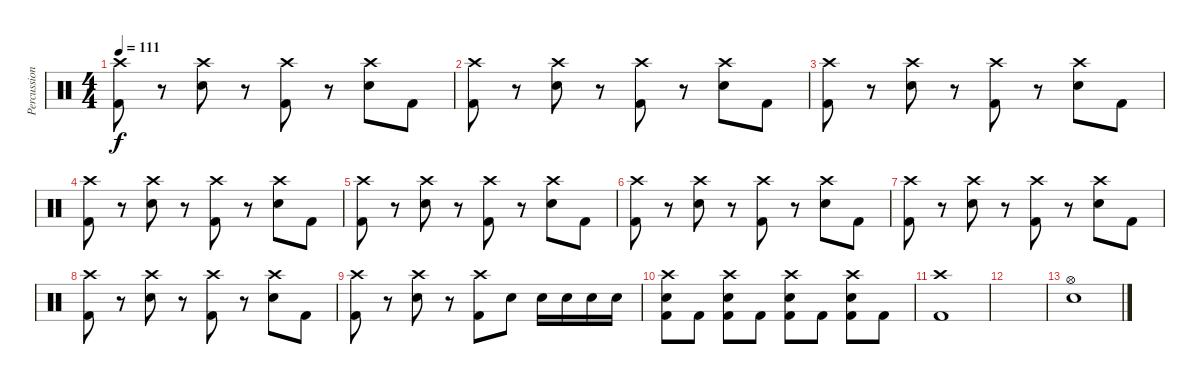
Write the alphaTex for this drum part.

\track ("Percussion" "Percussion") {instrument percussion}
\staff {score}
\articulation defaults
\ts (4 4)
\tempo 111
\clef neutral
\ks c
("Crash high (hit)" "Kick (hit) 2").8{dy f} r.8 ("Crash high (hit)" "Snare (hit) 2").8 r.8 ("Crash high (hit)" "Kick (hit) 2").8 r.8 ("Crash high (hit)" "Snare (hit) 2").8 "Kick (hit) 2".8 |
("Crash high (hit)" "Kick (hit) 2").8 r.8 ("Crash high (hit)" "Snare (hit) 2").8 r.8 ("Crash high (hit)" "Kick (hit) 2").8 r.8 ("Crash high (hit)" "Snare (hit) 2").8 "Kick (hit) 2".8 |
("Crash high (hit)" "Kick (hit) 2").8 r.8 ("Crash high (hit)" "Snare (hit) 2").8 r.8 ("Crash high (hit)" "Kick (hit) 2").8 r.8 ("Crash high (hit)" "Snare (hit) 2").8 "Kick (hit) 2".8 |
("Crash high (hit)" "Kick (hit) 2").8 r.8 ("Crash high (hit)" "Snare (hit) 2").8 r.8 ("Crash high (hit)" "Kick (hit) 2").8 r.8 ("Crash high (hit)" "Snare (hit) 2").8 "Kick (hit) 2".8 |
("Crash high (hit)" "Kick (hit) 2").8 r.8 ("Crash high (hit)" "Snare (hit) 2").8 r.8 ("Crash high (hit)" "Kick (hit) 2").8 r.8 ("Crash high (hit)" "Snare (hit) 2").8 "Kick (hit) 2".8 |
("Crash high (hit)" "Kick (hit) 2").8 r.8 ("Crash high (hit)" "Snare (hit) 2").8 r.8 ("Crash high (hit)" "Kick (hit) 2").8 r.8 ("Crash high (hit)" "Snare (hit) 2").8 "Kick (hit) 2".8 |
("Crash high (hit)" "Kick (hit) 2").8 r.8 ("Crash high (hit)" "Snare (hit) 2").8 r.8 ("Crash high (hit)" "Kick (hit) 2").8 r.8 ("Crash high (hit)" "Snare (hit) 2").8 "Kick (hit) 2".8 |
("Crash high (hit)" "Kick (hit) 2").8 r.8 ("Crash high (hit)" "Snare (hit) 2").8 r.8 ("Crash high (hit)" "Kick (hit) 2").8 r.8 ("Crash high (hit)" "Snare (hit) 2").8 "Kick (hit) 2".8 |
("Crash high (hit)" "Kick (hit) 2").8 r.8 ("Crash high (hit)" "Snare (hit) 2").8 r.8 ("Crash high (hit)" "Kick (hit) 2").8 "Snare (hit) 2".8 "Snare (hit) 2".16 "Snare (hit) 2".16 "Snare (hit) 2".16 "Snare (hit) 2".16 |
("Crash high (hit)" "Snare (hit) 2" "Kick (hit) 2").8 "Kick (hit) 2".8 ("Crash high (hit)" "Snare (hit) 2" "Kick (hit) 2").8 "Kick (hit) 2".8 ("Crash high (hit)" "Snare (hit) 2" "Kick (hit) 2").8 "Kick (hit) 2".8 ("Crash high (hit)" "Snare (hit) 2" "Kick (hit) 2").8 "Kick (hit) 2".8 |
("Crash high (hit)" "Kick (hit) 2").1 |
|
("Hi-Hat (open)" "Snare (hit) 2").1
